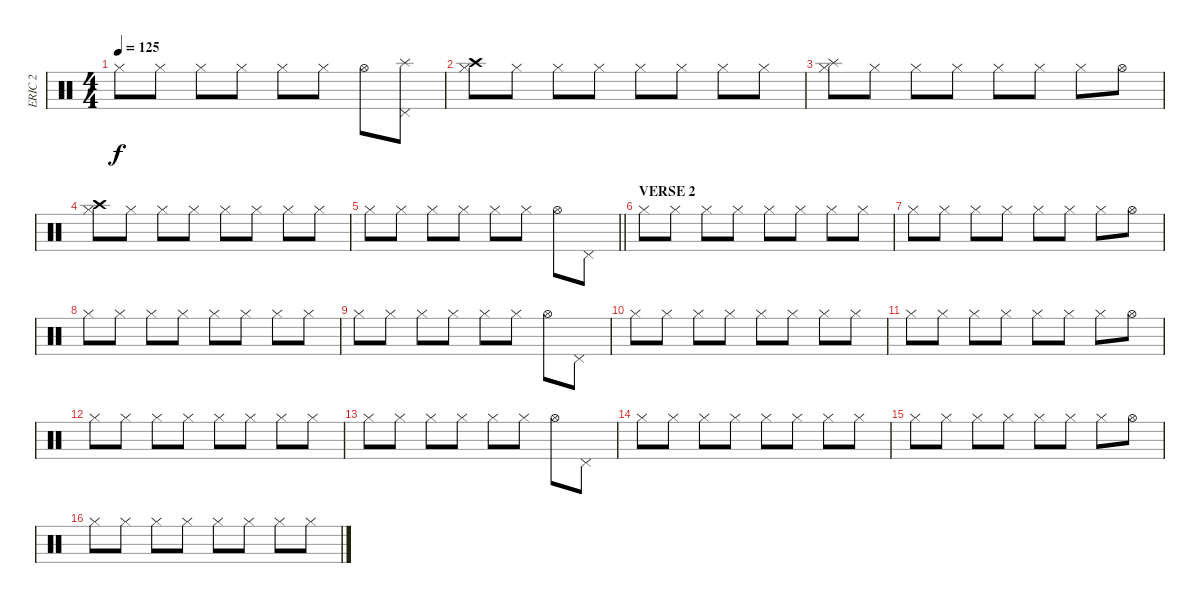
\track ("ERIC 2" "ERIC 2") {instrument percussion}
\staff {score}
\articulation defaults
\ts (4 4)
\tempo 125
\clef neutral
\ks c "Hi-Hat (closed)".8{dy f} "Hi-Hat (closed)".8 "Hi-Hat (closed)".8 "Hi-Hat (closed)".8 "Hi-Hat (closed)".8 "Hi-Hat (closed)".8 "Hi-Hat (open)".8
("Splash (hit)" "Pedal Hi-Hat (hit)").8 |
("Crash high (hit)" "Hi-Hat (closed)").8 "Hi-Hat (closed)".8 "Hi-Hat (closed)".8 "Hi-Hat (closed)".8 "Hi-Hat (closed)".8 "Hi-Hat (closed)".8 "Hi-Hat (closed)".8 "Hi-Hat (closed)".8 |
("Splash (hit)" "Hi-Hat (closed)").8 "Hi-Hat (closed)".8 "Hi-Hat (closed)".8 "Hi-Hat (closed)".8 "Hi-Hat (closed)".8 "Hi-Hat (closed)".8 "Hi-Hat (closed)".8 "Hi-Hat (open)".8 |
("Hi-Hat (closed)" "Crash high (hit)").8 "Hi-Hat (closed)".8 "Hi-Hat (closed)".8 "Hi-Hat (closed)".8 "Hi-Hat (closed)".8 "Hi-Hat (closed)".8 "Hi-Hat (closed)".8 "Hi-Hat (closed)".8 |
\barLineRight lightlight "Hi-Hat (closed)".8 "Hi-Hat (closed)".8 "Hi-Hat (closed)".8 "Hi-Hat (closed)".8 "Hi-Hat (closed)".8 "Hi-Hat (closed)".8 "Hi-Hat (open)".8 "Pedal Hi-Hat (hit)".8
|
\section ("" "VERSE 2")
"Hi-Hat (closed)".8 "Hi-Hat (closed)".8 "Hi-Hat (closed)".8 "Hi-Hat (closed)".8 "Hi-Hat (closed)".8 "Hi-Hat (closed)".8 "Hi-Hat (closed)".8 "Hi-Hat (closed)".8 |
"Hi-Hat (closed)".8 "Hi-Hat (closed)".8 "Hi-Hat (closed)".8 "Hi-Hat (closed)".8 "Hi-Hat (closed)".8 "Hi-Hat (closed)".8 "Hi-Hat (closed)".8 "Hi-Hat (open)".8 |
"Hi-Hat (closed)".8 "Hi-Hat (closed)".8 "Hi-Hat (closed)".8 "Hi-Hat (closed)".8 "Hi-Hat (closed)".8 "Hi-Hat (closed)".8 "Hi-Hat (closed)".8 "Hi-Hat (closed)".8 |
"Hi-Hat (closed)".8 "Hi-Hat (closed)".8 "Hi-Hat (closed)".8 "Hi-Hat (closed)".8 "Hi-Hat (closed)".8 "Hi-Hat (closed)".8 "Hi-Hat (open)".8 "Pedal Hi-Hat (hit)".8 |
"Hi-Hat (closed)".8 "Hi-Hat (closed)".8 "Hi-Hat (closed)".8 "Hi-Hat (closed)".8 "Hi-Hat (closed)".8 "Hi-Hat (closed)".8 "Hi-Hat (closed)".8 "Hi-Hat (closed)".8 |
"Hi-Hat (closed)".8 "Hi-Hat (closed)".8 "Hi-Hat (closed)".8 "Hi-Hat (closed)".8 "Hi-Hat (closed)".8 "Hi-Hat (closed)".8 "Hi-Hat (closed)".8 "Hi-Hat (open)".8 |
"Hi-Hat (closed)".8 "Hi-Hat (closed)".8 "Hi-Hat (closed)".8 "Hi-Hat (closed)".8 "Hi-Hat (closed)".8 "Hi-Hat (closed)".8 "Hi-Hat (closed)".8 "Hi-Hat (closed)".8 |
"Hi-Hat (closed)".8 "Hi-Hat (closed)".8 "Hi-Hat (closed)".8 "Hi-Hat (closed)".8 "Hi-Hat (closed)".8 "Hi-Hat (closed)".8 "Hi-Hat (open)".8 "Pedal Hi-Hat (hit)".8 |
"Hi-Hat (closed)".8 "Hi-Hat (closed)".8 "Hi-Hat (closed)".8 "Hi-Hat (closed)".8 "Hi-Hat (closed)".8 "Hi-Hat (closed)".8 "Hi-Hat (closed)".8 "Hi-Hat (closed)".8 |
"Hi-Hat (closed)".8 "Hi-Hat (closed)".8 "Hi-Hat (closed)".8 "Hi-Hat (closed)".8 "Hi-Hat (closed)".8 "Hi-Hat (closed)".8 "Hi-Hat (closed)".8 "Hi-Hat (open)".8 |
"Hi-Hat (closed)".8 "Hi-Hat (closed)".8 "Hi-Hat (closed)".8 "Hi-Hat (closed)".8 "Hi-Hat (closed)".8 "Hi-Hat (closed)".8 "Hi-Hat (closed)".8 "Hi-Hat (closed)".8
